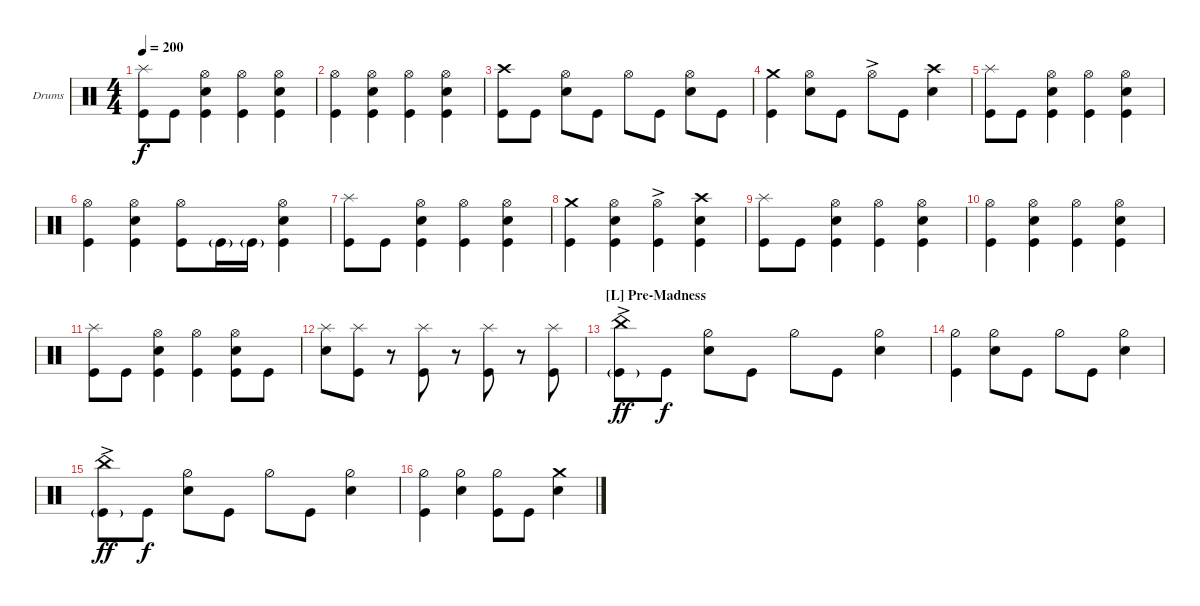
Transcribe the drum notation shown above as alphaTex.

\defaultSystemsLayout 4
\bracketExtendMode groupsimilarinstruments
\firstSystemTrackNameOrientation horizontal
\otherSystemsTrackNameOrientation horizontal
\track ("Drumkit" "Drums") {instrument percussion}
\staff {score}
\articulation defaults
\ts (4 4)
\tempo 200
\clef neutral
\ks c
("Kick (hit)" "Splash (hit)").8{dy f} "Kick (hit)".8 ("Kick (hit)" "Snare (hit) 2" "Hi-Hat (open)").4 ("Kick (hit)" "Hi-Hat (open)").4 ("Snare (hit) 2" "Kick (hit)" "Hi-Hat (open)").4 |
("Kick (hit)" "Hi-Hat (open)").4 ("Snare (hit) 2" "Kick (hit)" "Hi-Hat (open)").4 ("Kick (hit)" "Hi-Hat (open)").4 ("Snare (hit) 2" "Kick (hit)" "Hi-Hat (open)").4 |
("Crash high (hit)" "Kick (hit)").8 "Kick (hit)".8 ("Hi-Hat (open)" "Snare (hit) 2").8 "Kick (hit)".8 "Hi-Hat (open)".8 "Kick (hit)".8 ("Snare (hit) 2" "Hi-Hat (open)").8 "Kick (hit)".8 |
("Kick (hit)" "Crash medium (hit)").4 ("Snare (hit) 2" "Hi-Hat (open)").8 "Kick (hit)".8 "Hi-Hat (open)"{ac}.8 "Kick (hit)".8 ("Snare (hit) 2" "Crash high (hit)").4 |
("Kick (hit)" "Splash (hit)").8 "Kick (hit)".8 ("Kick (hit)" "Snare (hit) 2" "Hi-Hat (open)").4 ("Kick (hit)" "Hi-Hat (open)").4 ("Snare (hit) 2" "Kick (hit)" "Hi-Hat (open)").4 |
("Kick (hit)" "Hi-Hat (open)").4 ("Snare (hit) 2" "Kick (hit)" "Hi-Hat (open)").4 ("Kick (hit)" "Hi-Hat (open)").8 "Kick (hit)"{g}.16 "Kick (hit)"{g}.16 ("Snare (hit) 2" "Kick (hit)" "Hi-Hat (open)").4 |
("Kick (hit)" "Splash (hit)").8 "Kick (hit)".8 ("Kick (hit)" "Snare (hit) 2" "Hi-Hat (open)").4 ("Kick (hit)" "Hi-Hat (open)").4 ("Snare (hit) 2" "Kick (hit)" "Hi-Hat (open)").4 |
("Kick (hit)" "Crash medium (hit)").4 ("Snare (hit) 2" "Kick (hit)" "Hi-Hat (open)").4 ("Kick (hit)" "Hi-Hat (open)"{ac}).4 ("Snare (hit) 2" "Kick (hit)" "Crash high (hit)").4 |
("Kick (hit)" "Splash (hit)").8 "Kick (hit)".8 ("Kick (hit)" "Snare (hit) 2" "Hi-Hat (open)").4 ("Kick (hit)" "Hi-Hat (open)").4 ("Snare (hit) 2" "Kick (hit)" "Hi-Hat (open)").4 |
("Kick (hit)" "Hi-Hat (open)").4 ("Snare (hit) 2" "Kick (hit)" "Hi-Hat (open)").4 ("Kick (hit)" "Hi-Hat (open)").4 ("Snare (hit) 2" "Kick (hit)" "Hi-Hat (open)").4 |
("Kick (hit)" "Splash (hit)").8 "Kick (hit)".8 ("Kick (hit)" "Snare (hit) 2" "Hi-Hat (open)").4 ("Kick (hit)" "Hi-Hat (open)").4 ("Snare (hit) 2" "Kick (hit)" "Hi-Hat (open)").8 "Kick (hit)".8 |
("Snare (hit) 2" "Splash (hit)").8 ("Kick (hit)" "Splash (hit)").8 r.8 ("Kick (hit)" "Splash (hit)").8 r.8 ("Kick (hit)" "Splash (hit)").8 r.8 ("Kick (hit)" "Splash (hit)").8 |
\section ("L" "Pre-Madness")
("China (hit)"{ac} "Kick (hit)"{g}).8{dy ff} "Kick (hit)".8{dy f} ("Snare (hit) 2" "Hi-Hat (half)").8 "Kick (hit)".8 "Hi-Hat (half)".8 "Kick (hit)".8 ("Snare (hit) 2" "Hi-Hat (half)").4 |
("Kick (hit)" "Hi-Hat (half)").4 ("Snare (hit) 2" "Hi-Hat (half)").8 "Kick (hit)".8 "Hi-Hat (half)".8 "Kick (hit)".8 ("Snare (hit) 2" "Hi-Hat (half)").4 |
("China (hit)"{ac} "Kick (hit)"{g}).8{dy ff} "Kick (hit)".8{dy f} ("Snare (hit) 2" "Hi-Hat (half)").8 "Kick (hit)".8 "Hi-Hat (half)".8 "Kick (hit)".8 ("Snare (hit) 2" "Hi-Hat (half)").4 |
("Kick (hit)" "Hi-Hat (half)").4 ("Snare (hit) 2" "Hi-Hat (half)").4 ("Hi-Hat (half)" "Kick (hit)").8 "Kick (hit)".8 ("Snare (hit) 2" "Crash medium (hit)").4
